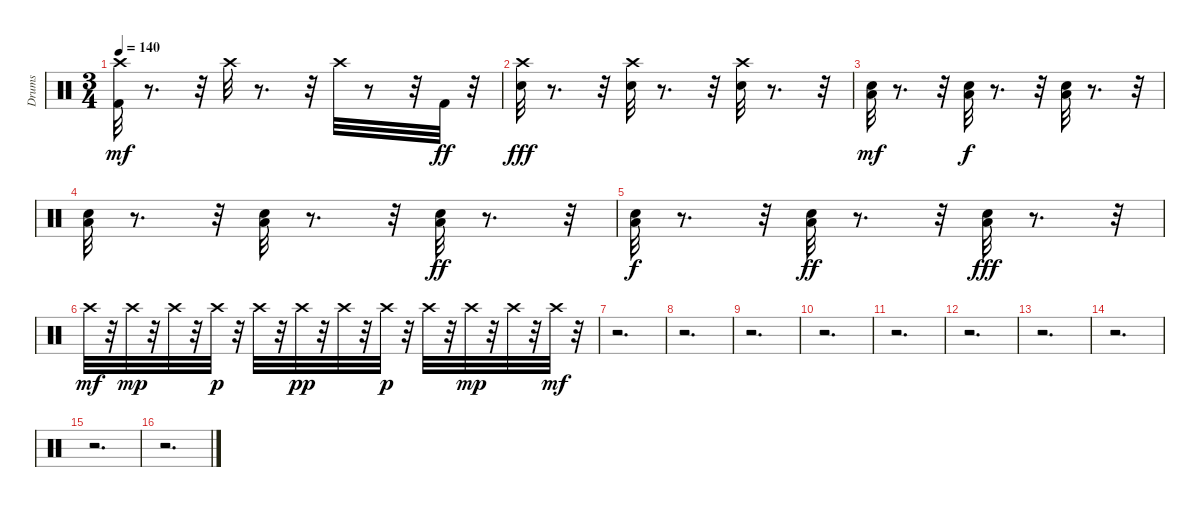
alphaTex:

\track ("Drums" "Drums") {instrument percussion}
\staff {score}
\articulation defaults
\ts (3 4)
\tempo 140
\clef neutral
\ks c
("Kick (hit) 2" "Crash high (hit)").32{dy mf} r.8{d} r.32 "Crash high (hit)".32 r.8{d} r.32 "Crash high (hit)".32 r.8 r.32 "Kick (hit) 2".32{dy ff} r.32 |
("Snare (hit) 2" "Crash high (hit)").32{dy fff} r.8{d} r.32 ("Snare (hit) 2" "Crash high (hit)").32 r.8{d} r.32 ("Snare (hit) 2" "Crash high (hit)").32 r.8{d} r.32 |
("Snare (hit) 2" "Low Floor Tom (hit)").32{dy mf} r.8{d} r.32 ("Snare (hit) 2" "Low Floor Tom (hit)").32{dy f} r.8{d} r.32 ("Snare (hit) 2" "Low Floor Tom (hit)").32 r.8{d} r.32 |
("Snare (hit) 2" "Low Floor Tom (hit)").32 r.8{d} r.32 ("Snare (hit) 2" "Low Floor Tom (hit)").32 r.8{d} r.32 ("Snare (hit) 2" "Low Floor Tom (hit)").32{dy ff} r.8{d} r.32 |
("Snare (hit) 2" "Low Floor Tom (hit)").32{dy f} r.8{d} r.32 ("Snare (hit) 2" "Low Floor Tom (hit)").32{dy ff} r.8{d} r.32 ("Snare (hit) 2" "Low Floor Tom (hit)").32{dy fff} r.8{d} r.32 |
"Crash high (hit)".32{dy mf} r.32 "Crash high (hit)".32{dy mp} r.32 "Crash high (hit)".32 r.32 "Crash high (hit)".32{dy p} r.32 "Crash high (hit)".32 r.32 "Crash high (hit)".32{dy pp} r.32 "Crash high (hit)".32 r.32 "Crash high (hit)".32{dy p} r.32 "Crash high (hit)".32 r.32 "Crash high (hit)".32{dy mp} r.32 "Crash high (hit)".32 r.32 "Crash high (hit)".32{dy mf} r.32 |
r.2{d} |
r.2{d} |
r.2{d} |
r.2{d} |
r.2{d} |
r.2{d} |
r.2{d} |
r.2{d} |
r.2{d} |
r.2{d}
